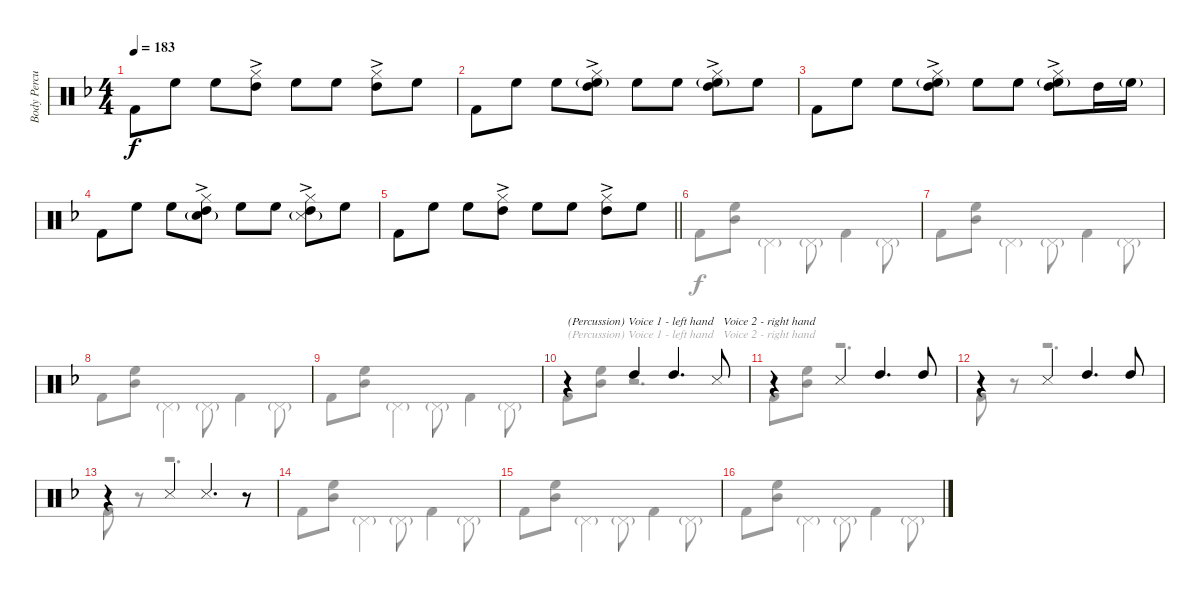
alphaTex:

\track ("Body Percussion" "Body Percu") {instrument percussion}
\staff {score}
\articulation defaults
\voice
\ts (4 4)
\tempo 183
\clef neutral
\ks dminor "Kick (hit) 2".8{dy f} "High Floor Tom (hit)".8 "High Floor Tom (hit)".8
("Hi-Hat (closed)" "High Tom (hit)"{ac}).8 "High Floor Tom (hit)".8 "High Floor Tom (hit)".8 ("Hi-Hat (closed)" "High Tom (hit)"{ac}).8 "High Floor Tom (hit)".8 |
"Kick (hit) 2".8 "High Floor Tom (hit)".8 "High Floor Tom (hit)".8 ("Hi-Hat (closed)" "High Tom (hit)"{ac} "High Floor Tom (hit)"{g}).8 "High Floor Tom (hit)".8 "High Floor Tom (hit)".8 ("Hi-Hat (closed)" "High Tom (hit)"{ac} "High Floor Tom (hit)"{g}).8 "High Floor Tom (hit)".8 |
"Kick (hit) 2".8 "High Floor Tom (hit)".8 "High Floor Tom (hit)".8 ("Hi-Hat (closed)" "High Tom (hit)"{ac} "High Floor Tom (hit)"{g}).8 "High Floor Tom (hit)".8 "High Floor Tom (hit)".8 ("Hi-Hat (closed)" "High Tom (hit)"{ac} "High Floor Tom (hit)"{g}).8 "High Tom (hit)".16 "High Floor Tom (hit)"{g}.16 |
"Kick (hit) 2".8 "High Floor Tom (hit)".8 "High Floor Tom (hit)".8 ("Hi-Hat (closed)" "High Tom (hit)"{ac} "Snare (hit) 2"{g}).8 "High Floor Tom (hit)".8 "High Floor Tom (hit)".8 ("Hi-Hat (closed)" "High Tom (hit)"{ac} "Snare (side stick) 3"{g}).8 "High Floor Tom (hit)".8 |
\barLineRight lightlight "Kick (hit) 2".8 "High Floor Tom (hit)".8 "High Floor Tom (hit)".8
("Hi-Hat (closed)" "High Tom (hit)"{ac}).8 "High Floor Tom (hit)".8 "High Floor Tom (hit)".8 ("Hi-Hat (closed)" "High Tom (hit)"{ac}).8 "High Floor Tom (hit)".8 |
|
|
|
|
r.4{txt "(Percussion) Voice 1 - left hand   Voice 2 - right hand"} "High Tom (hit)".4 "High Tom (hit)".4{d} "Snare (side stick) 3".8 |
r.4 "Snare (side stick) 3".4 "High Tom (hit)".4{d} "High Tom (hit)".8 |
r.4 "Snare (side stick) 3".4 "High Tom (hit)".4{d} "High Tom (hit)".8 |
r.4 "Snare (side stick) 3".4 "Snare (side stick) 3".4{d} r.8 |
|
|
\voice
\clef neutral
\ottava regular
\simile none
\ks dminor
|
|
|
|
\barLineRight lightlight
|
"Kick (hit) 2".8 ("High Floor Tom (hit)" "Mid Tom (hit)").8 "Pedal Hi-Hat (hit)"{g}.4 "Pedal Hi-Hat (hit)"{g}.8 "Kick (hit) 2".4 "Pedal Hi-Hat (hit)"{g}.8 |
"Kick (hit) 2".8 ("High Floor Tom (hit)" "Mid Tom (hit)").8 "Pedal Hi-Hat (hit)"{g}.4 "Pedal Hi-Hat (hit)"{g}.8 "Kick (hit) 2".4 "Pedal Hi-Hat (hit)"{g}.8 |
"Kick (hit) 2".8 ("High Floor Tom (hit)" "Mid Tom (hit)").8 "Pedal Hi-Hat (hit)"{g}.4 "Pedal Hi-Hat (hit)"{g}.8 "Kick (hit) 2".4 "Pedal Hi-Hat (hit)"{g}.8 |
"Kick (hit) 2".8 ("High Floor Tom (hit)" "Mid Tom (hit)").8 "Pedal Hi-Hat (hit)"{g}.4 "Pedal Hi-Hat (hit)"{g}.8 "Kick (hit) 2".4 "Pedal Hi-Hat (hit)"{g}.8 |
"Kick (hit) 2".8{txt "(Percussion) Voice 1 - left hand   Voice 2 - right hand"} ("High Floor Tom (hit)" "Mid Tom (hit)").8 r.2{d} |
"Kick (hit) 2".8 ("High Floor Tom (hit)" "Mid Tom (hit)").8 r.2{d} |
"Kick (hit) 2".8 r.8 r.2{d} |
"Kick (hit) 2".8 r.8 r.2{d} |
"Kick (hit) 2".8 ("High Floor Tom (hit)" "Mid Tom (hit)").8 "Pedal Hi-Hat (hit)"{g}.4 "Pedal Hi-Hat (hit)"{g}.8 "Kick (hit) 2".4 "Pedal Hi-Hat (hit)"{g}.8 |
"Kick (hit) 2".8 ("High Floor Tom (hit)" "Mid Tom (hit)").8 "Pedal Hi-Hat (hit)"{g}.4 "Pedal Hi-Hat (hit)"{g}.8 "Kick (hit) 2".4 "Pedal Hi-Hat (hit)"{g}.8 |
"Kick (hit) 2".8 ("High Floor Tom (hit)" "Mid Tom (hit)").8 "Pedal Hi-Hat (hit)"{g}.4 "Pedal Hi-Hat (hit)"{g}.8 "Kick (hit) 2".4 "Pedal Hi-Hat (hit)"{g}.8
